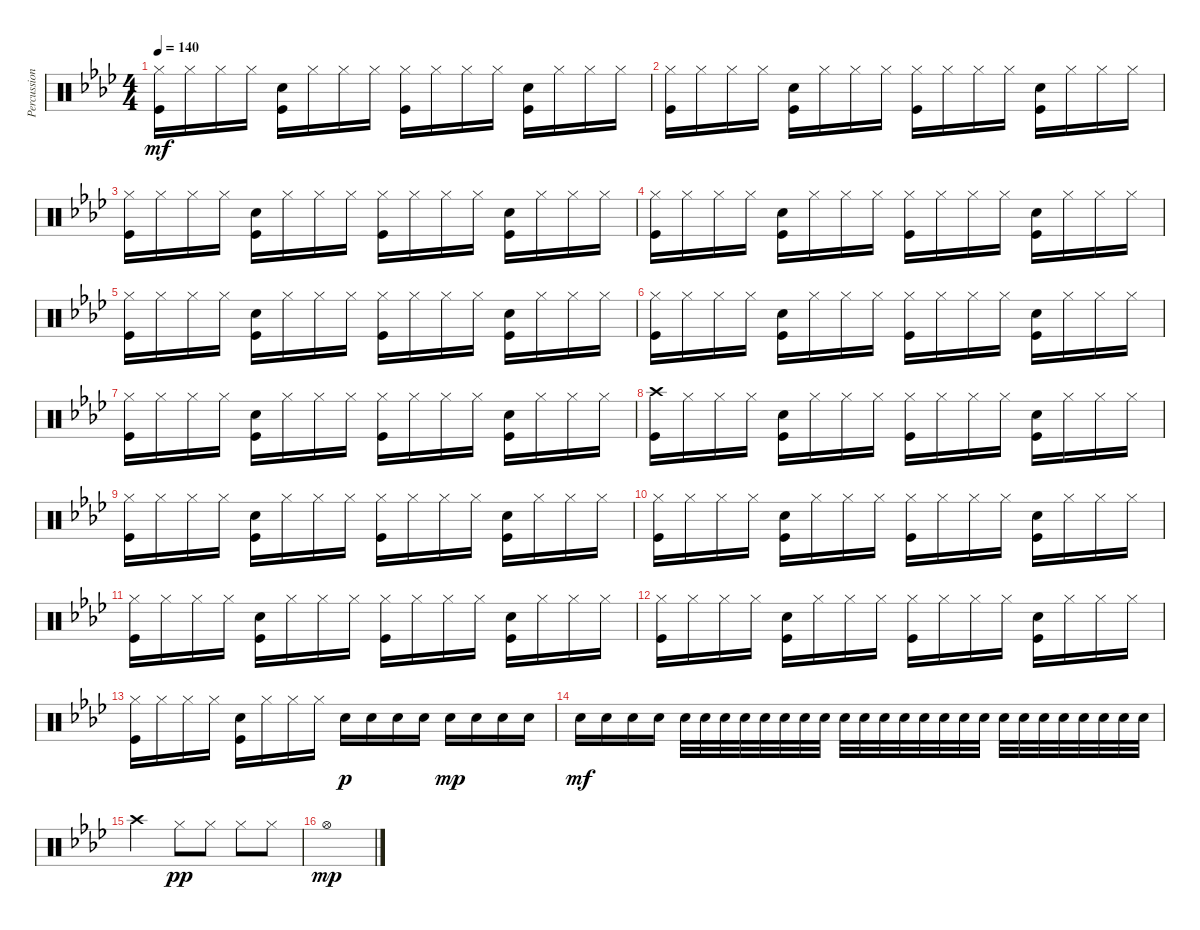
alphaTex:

\track ("Percussion" "Percussion") {instrument percussion}
\staff {score}
\articulation defaults
\ts (4 4)
\tempo 140
\clef neutral
\ks ab
("Hi-Hat (closed)" "Kick (hit)").16{dy mf} "Hi-Hat (closed)".16 "Hi-Hat (closed)".16 "Hi-Hat (closed)".16 ("Snare (hit) 2" "Kick (hit)").16 "Hi-Hat (closed)".16 "Hi-Hat (closed)".16 "Hi-Hat (closed)".16 ("Hi-Hat (closed)" "Kick (hit)").16 "Hi-Hat (closed)".16 "Hi-Hat (closed)".16 "Hi-Hat (closed)".16 ("Snare (hit) 2" "Kick (hit)").16 "Hi-Hat (closed)".16 "Hi-Hat (closed)".16 "Hi-Hat (closed)".16 |
("Hi-Hat (closed)" "Kick (hit)").16 "Hi-Hat (closed)".16 "Hi-Hat (closed)".16 "Hi-Hat (closed)".16 ("Snare (hit) 2" "Kick (hit)").16 "Hi-Hat (closed)".16 "Hi-Hat (closed)".16 "Hi-Hat (closed)".16 ("Hi-Hat (closed)" "Kick (hit)").16 "Hi-Hat (closed)".16 "Hi-Hat (closed)".16 "Hi-Hat (closed)".16 ("Snare (hit) 2" "Kick (hit)").16 "Hi-Hat (closed)".16 "Hi-Hat (closed)".16 "Hi-Hat (closed)".16 |
("Hi-Hat (closed)" "Kick (hit)").16 "Hi-Hat (closed)".16 "Hi-Hat (closed)".16 "Hi-Hat (closed)".16 ("Snare (hit) 2" "Kick (hit)").16 "Hi-Hat (closed)".16 "Hi-Hat (closed)".16 "Hi-Hat (closed)".16 ("Hi-Hat (closed)" "Kick (hit)").16 "Hi-Hat (closed)".16 "Hi-Hat (closed)".16 "Hi-Hat (closed)".16 ("Snare (hit) 2" "Kick (hit)").16 "Hi-Hat (closed)".16 "Hi-Hat (closed)".16 "Hi-Hat (closed)".16 |
("Hi-Hat (closed)" "Kick (hit)").16 "Hi-Hat (closed)".16 "Hi-Hat (closed)".16 "Hi-Hat (closed)".16 ("Snare (hit) 2" "Kick (hit)").16 "Hi-Hat (closed)".16 "Hi-Hat (closed)".16 "Hi-Hat (closed)".16 ("Hi-Hat (closed)" "Kick (hit)").16 "Hi-Hat (closed)".16 "Hi-Hat (closed)".16 "Hi-Hat (closed)".16 ("Snare (hit) 2" "Kick (hit)").16 "Hi-Hat (closed)".16 "Hi-Hat (closed)".16 "Hi-Hat (closed)".16 |
("Hi-Hat (closed)" "Kick (hit)").16 "Hi-Hat (closed)".16 "Hi-Hat (closed)".16 "Hi-Hat (closed)".16 ("Snare (hit) 2" "Kick (hit)").16 "Hi-Hat (closed)".16 "Hi-Hat (closed)".16 "Hi-Hat (closed)".16 ("Hi-Hat (closed)" "Kick (hit)").16 "Hi-Hat (closed)".16 "Hi-Hat (closed)".16 "Hi-Hat (closed)".16 ("Snare (hit) 2" "Kick (hit)").16 "Hi-Hat (closed)".16 "Hi-Hat (closed)".16 "Hi-Hat (closed)".16 |
("Hi-Hat (closed)" "Kick (hit)").16 "Hi-Hat (closed)".16 "Hi-Hat (closed)".16 "Hi-Hat (closed)".16 ("Snare (hit) 2" "Kick (hit)").16 "Hi-Hat (closed)".16 "Hi-Hat (closed)".16 "Hi-Hat (closed)".16 ("Hi-Hat (closed)" "Kick (hit)").16 "Hi-Hat (closed)".16 "Hi-Hat (closed)".16 "Hi-Hat (closed)".16 ("Snare (hit) 2" "Kick (hit)").16 "Hi-Hat (closed)".16 "Hi-Hat (closed)".16 "Hi-Hat (closed)".16 |
("Hi-Hat (closed)" "Kick (hit)").16 "Hi-Hat (closed)".16 "Hi-Hat (closed)".16 "Hi-Hat (closed)".16 ("Snare (hit) 2" "Kick (hit)").16 "Hi-Hat (closed)".16 "Hi-Hat (closed)".16 "Hi-Hat (closed)".16 ("Hi-Hat (closed)" "Kick (hit)").16 "Hi-Hat (closed)".16 "Hi-Hat (closed)".16 "Hi-Hat (closed)".16 ("Snare (hit) 2" "Kick (hit)").16 "Hi-Hat (closed)".16 "Hi-Hat (closed)".16 "Hi-Hat (closed)".16 |
("Crash high (hit)" "Kick (hit)").16 "Hi-Hat (closed)".16 "Hi-Hat (closed)".16 "Hi-Hat (closed)".16 ("Snare (hit) 2" "Kick (hit)").16 "Hi-Hat (closed)".16 "Hi-Hat (closed)".16 "Hi-Hat (closed)".16 ("Hi-Hat (closed)" "Kick (hit)").16 "Hi-Hat (closed)".16 "Hi-Hat (closed)".16 "Hi-Hat (closed)".16 ("Snare (hit) 2" "Kick (hit)").16 "Hi-Hat (closed)".16 "Hi-Hat (closed)".16 "Hi-Hat (closed)".16 |
("Hi-Hat (closed)" "Kick (hit)").16 "Hi-Hat (closed)".16 "Hi-Hat (closed)".16 "Hi-Hat (closed)".16 ("Snare (hit) 2" "Kick (hit)").16 "Hi-Hat (closed)".16 "Hi-Hat (closed)".16 "Hi-Hat (closed)".16 ("Hi-Hat (closed)" "Kick (hit)").16 "Hi-Hat (closed)".16 "Hi-Hat (closed)".16 "Hi-Hat (closed)".16 ("Snare (hit) 2" "Kick (hit)").16 "Hi-Hat (closed)".16 "Hi-Hat (closed)".16 "Hi-Hat (closed)".16 |
("Hi-Hat (closed)" "Kick (hit)").16 "Hi-Hat (closed)".16 "Hi-Hat (closed)".16 "Hi-Hat (closed)".16 ("Snare (hit) 2" "Kick (hit)").16 "Hi-Hat (closed)".16 "Hi-Hat (closed)".16 "Hi-Hat (closed)".16 ("Hi-Hat (closed)" "Kick (hit)").16 "Hi-Hat (closed)".16 "Hi-Hat (closed)".16 "Hi-Hat (closed)".16 ("Snare (hit) 2" "Kick (hit)").16 "Hi-Hat (closed)".16 "Hi-Hat (closed)".16 "Hi-Hat (closed)".16 |
("Hi-Hat (closed)" "Kick (hit)").16 "Hi-Hat (closed)".16 "Hi-Hat (closed)".16 "Hi-Hat (closed)".16 ("Snare (hit) 2" "Kick (hit)").16 "Hi-Hat (closed)".16 "Hi-Hat (closed)".16 "Hi-Hat (closed)".16 ("Hi-Hat (closed)" "Kick (hit)").16 "Hi-Hat (closed)".16 "Hi-Hat (closed)".16 "Hi-Hat (closed)".16 ("Snare (hit) 2" "Kick (hit)").16 "Hi-Hat (closed)".16 "Hi-Hat (closed)".16 "Hi-Hat (closed)".16 |
("Hi-Hat (closed)" "Kick (hit)").16 "Hi-Hat (closed)".16 "Hi-Hat (closed)".16 "Hi-Hat (closed)".16 ("Snare (hit) 2" "Kick (hit)").16 "Hi-Hat (closed)".16 "Hi-Hat (closed)".16 "Hi-Hat (closed)".16 ("Hi-Hat (closed)" "Kick (hit)").16 "Hi-Hat (closed)".16 "Hi-Hat (closed)".16 "Hi-Hat (closed)".16 ("Snare (hit) 2" "Kick (hit)").16 "Hi-Hat (closed)".16 "Hi-Hat (closed)".16 "Hi-Hat (closed)".16 |
("Hi-Hat (closed)" "Kick (hit)").16 "Hi-Hat (closed)".16 "Hi-Hat (closed)".16 "Hi-Hat (closed)".16 ("Snare (hit) 2" "Kick (hit)").16 "Hi-Hat (closed)".16 "Hi-Hat (closed)".16 "Hi-Hat (closed)".16 "Snare (hit) 2".16{dy p} "Snare (hit) 2".16 "Snare (hit) 2".16 "Snare (hit) 2".16 "Snare (hit) 2".16{dy mp} "Snare (hit) 2".16 "Snare (hit) 2".16 "Snare (hit) 2".16 |
"Snare (hit) 2".16{dy mf} "Snare (hit) 2".16 "Snare (hit) 2".16 "Snare (hit) 2".16 "Snare (hit) 2".32 "Snare (hit) 2".32 "Snare (hit) 2".32 "Snare (hit) 2".32 "Snare (hit) 2".32 "Snare (hit) 2".32 "Snare (hit) 2".32 "Snare (hit) 2".32 "Snare (hit) 2".32 "Snare (hit) 2".32 "Snare (hit) 2".32 "Snare (hit) 2".32 "Snare (hit) 2".32 "Snare (hit) 2".32 "Snare (hit) 2".32 "Snare (hit) 2".32 "Snare (hit) 2".32 "Snare (hit) 2".32 "Snare (hit) 2".32 "Snare (hit) 2".32 "Snare (hit) 2".32 "Snare (hit) 2".32 "Snare (hit) 2".32 "Snare (hit) 2".32 |
"Crash high (hit)".2 "Hi-Hat (closed)".8{dy pp} "Hi-Hat (closed)".8 "Hi-Hat (closed)".8 "Hi-Hat (closed)".8 |
"Hi-Hat (open)".1{dy mp}
